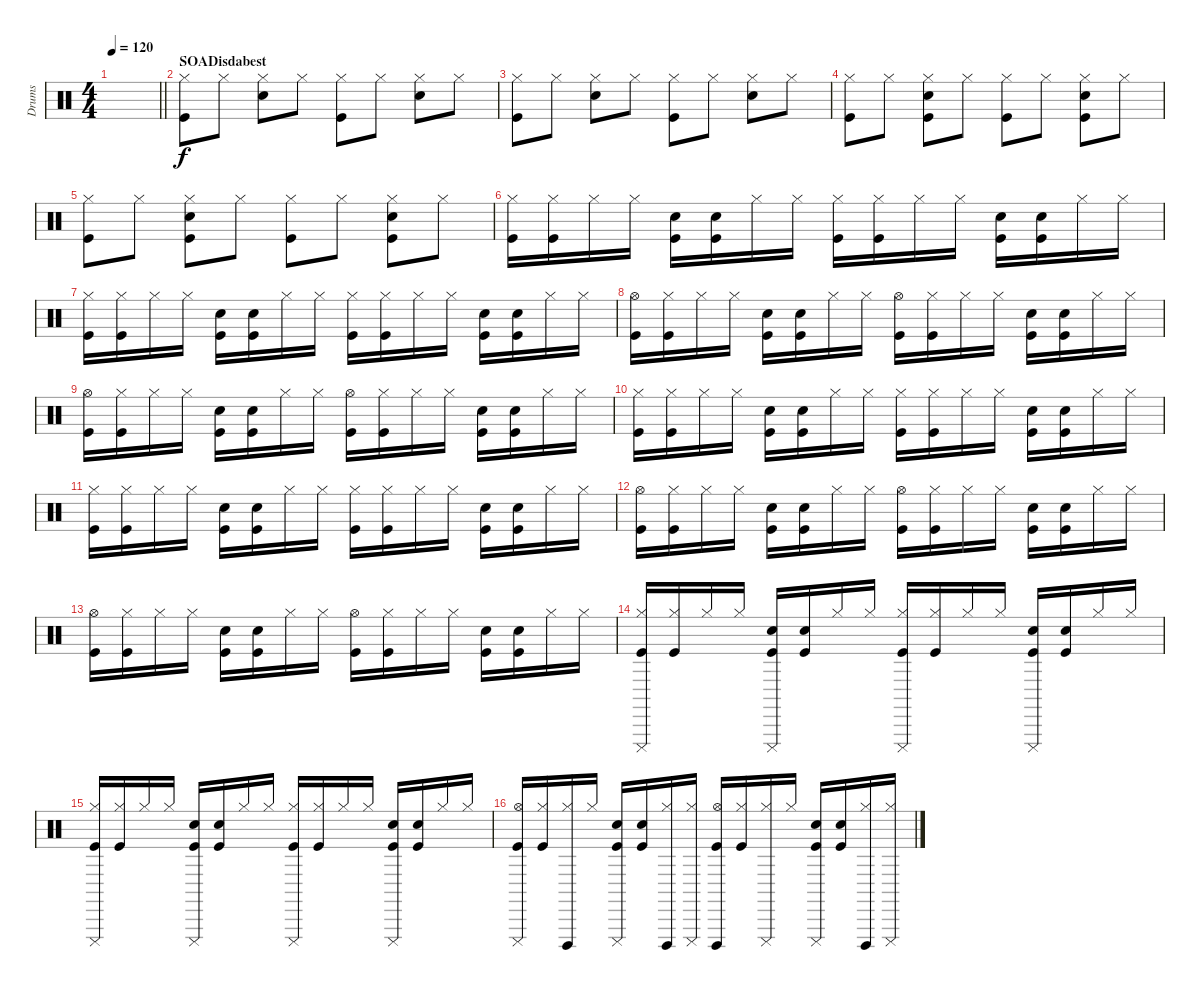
\track ("Drums" "Drums") {instrument percussion}
\staff {score}
\articulation defaults
\ts (4 4)
\tempo 120
\clef neutral
\barLineRight lightlight
\ks c
|
\section ("" "SOADisdabest")
("Hi-Hat (closed)" "Kick (hit)").8 "Hi-Hat (closed)".8 ("Hi-Hat (closed)" "Hand Clap (hit)").8 "Hi-Hat (closed)".8 ("Hi-Hat (closed)" "Kick (hit)").8 "Hi-Hat (closed)".8 ("Hi-Hat (closed)" "Hand Clap (hit)").8 "Hi-Hat (closed)".8 |
("Hi-Hat (closed)" "Kick (hit)").8 "Hi-Hat (closed)".8 ("Hi-Hat (closed)" "Hand Clap (hit)").8 "Hi-Hat (closed)".8 ("Hi-Hat (closed)" "Kick (hit)").8 "Hi-Hat (closed)".8 ("Hi-Hat (closed)" "Hand Clap (hit)").8 "Hi-Hat (closed)".8 |
("Hi-Hat (closed)" "Kick (hit)").8 "Hi-Hat (closed)".8 ("Hi-Hat (closed)" "Hand Clap (hit)" "Kick (hit)").8 "Hi-Hat (closed)".8 ("Hi-Hat (closed)" "Kick (hit)").8 "Hi-Hat (closed)".8 ("Hi-Hat (closed)" "Hand Clap (hit)" "Kick (hit)").8 "Hi-Hat (closed)".8 |
("Hi-Hat (closed)" "Kick (hit)").8 "Hi-Hat (closed)".8 ("Hi-Hat (closed)" "Hand Clap (hit)" "Kick (hit)").8 "Hi-Hat (closed)".8 ("Hi-Hat (closed)" "Kick (hit)").8 "Hi-Hat (closed)".8 ("Hi-Hat (closed)" "Hand Clap (hit)" "Kick (hit)").8 "Hi-Hat (closed)".8 |
("Hi-Hat (closed)" "Kick (hit)").16 ("Hi-Hat (closed)" "Kick (hit)").16 "Hi-Hat (closed)".16 "Hi-Hat (closed)".16 ("Hand Clap (hit)" "Kick (hit)").16 ("Hand Clap (hit)" "Kick (hit)").16 "Hi-Hat (closed)".16 "Hi-Hat (closed)".16 ("Hi-Hat (closed)" "Kick (hit)").16 ("Hi-Hat (closed)" "Kick (hit)").16 "Hi-Hat (closed)".16 "Hi-Hat (closed)".16 ("Hand Clap (hit)" "Kick (hit)").16 ("Hand Clap (hit)" "Kick (hit)").16 "Hi-Hat (closed)".16 "Hi-Hat (closed)".16 |
("Hi-Hat (closed)" "Kick (hit)").16 ("Hi-Hat (closed)" "Kick (hit)").16 "Hi-Hat (closed)".16 "Hi-Hat (closed)".16 ("Hand Clap (hit)" "Kick (hit)").16 ("Hand Clap (hit)" "Kick (hit)").16 "Hi-Hat (closed)".16 "Hi-Hat (closed)".16 ("Hi-Hat (closed)" "Kick (hit)").16 ("Hi-Hat (closed)" "Kick (hit)").16 "Hi-Hat (closed)".16 "Hi-Hat (closed)".16 ("Hand Clap (hit)" "Kick (hit)").16 ("Hand Clap (hit)" "Kick (hit)").16 "Hi-Hat (closed)".16 "Hi-Hat (closed)".16 |
("Hi-Hat (open)" "Kick (hit)").16 ("Hi-Hat (closed)" "Kick (hit)").16 "Hi-Hat (closed)".16 "Hi-Hat (closed)".16 ("Hand Clap (hit)" "Kick (hit)").16 ("Hand Clap (hit)" "Kick (hit)").16 "Hi-Hat (closed)".16 "Hi-Hat (closed)".16 ("Hi-Hat (open)" "Kick (hit)").16 ("Hi-Hat (closed)" "Kick (hit)").16 "Hi-Hat (closed)".16 "Hi-Hat (closed)".16 ("Hand Clap (hit)" "Kick (hit)").16 ("Hand Clap (hit)" "Kick (hit)").16 "Hi-Hat (closed)".16 "Hi-Hat (closed)".16 |
("Hi-Hat (open)" "Kick (hit)").16 ("Hi-Hat (closed)" "Kick (hit)").16 "Hi-Hat (closed)".16 "Hi-Hat (closed)".16 ("Hand Clap (hit)" "Kick (hit)").16 ("Hand Clap (hit)" "Kick (hit)").16 "Hi-Hat (closed)".16 "Hi-Hat (closed)".16 ("Hi-Hat (open)" "Kick (hit)").16 ("Hi-Hat (closed)" "Kick (hit)").16 "Hi-Hat (closed)".16 "Hi-Hat (closed)".16 ("Hand Clap (hit)" "Kick (hit)").16 ("Hand Clap (hit)" "Kick (hit)").16 "Hi-Hat (closed)".16 "Hi-Hat (closed)".16 |
("Hi-Hat (closed)" "Kick (hit)").16 ("Hi-Hat (closed)" "Kick (hit)").16 "Hi-Hat (closed)".16 "Hi-Hat (closed)".16 ("Hand Clap (hit)" "Kick (hit)").16 ("Hand Clap (hit)" "Kick (hit)").16 "Hi-Hat (closed)".16 "Hi-Hat (closed)".16 ("Hi-Hat (closed)" "Kick (hit)").16 ("Hi-Hat (closed)" "Kick (hit)").16 "Hi-Hat (closed)".16 "Hi-Hat (closed)".16 ("Hand Clap (hit)" "Kick (hit)").16 ("Hand Clap (hit)" "Kick (hit)").16 "Hi-Hat (closed)".16 "Hi-Hat (closed)".16 |
("Hi-Hat (closed)" "Kick (hit)").16 ("Hi-Hat (closed)" "Kick (hit)").16 "Hi-Hat (closed)".16 "Hi-Hat (closed)".16 ("Hand Clap (hit)" "Kick (hit)").16 ("Hand Clap (hit)" "Kick (hit)").16 "Hi-Hat (closed)".16 "Hi-Hat (closed)".16 ("Hi-Hat (closed)" "Kick (hit)").16 ("Hi-Hat (closed)" "Kick (hit)").16 "Hi-Hat (closed)".16 "Hi-Hat (closed)".16 ("Hand Clap (hit)" "Kick (hit)").16 ("Hand Clap (hit)" "Kick (hit)").16 "Hi-Hat (closed)".16 "Hi-Hat (closed)".16 |
("Hi-Hat (open)" "Kick (hit)").16 ("Hi-Hat (closed)" "Kick (hit)").16 "Hi-Hat (closed)".16 "Hi-Hat (closed)".16 ("Hand Clap (hit)" "Kick (hit)").16 ("Hand Clap (hit)" "Kick (hit)").16 "Hi-Hat (closed)".16 "Hi-Hat (closed)".16 ("Hi-Hat (open)" "Kick (hit)").16 ("Hi-Hat (closed)" "Kick (hit)").16 "Hi-Hat (closed)".16 "Hi-Hat (closed)".16 ("Hand Clap (hit)" "Kick (hit)").16 ("Hand Clap (hit)" "Kick (hit)").16 "Hi-Hat (closed)".16 "Hi-Hat (closed)".16 |
("Hi-Hat (open)" "Kick (hit)").16 ("Hi-Hat (closed)" "Kick (hit)").16 "Hi-Hat (closed)".16 "Hi-Hat (closed)".16 ("Hand Clap (hit)" "Kick (hit)").16 ("Hand Clap (hit)" "Kick (hit)").16 "Hi-Hat (closed)".16 "Hi-Hat (closed)".16 ("Hi-Hat (open)" "Kick (hit)").16 ("Hi-Hat (closed)" "Kick (hit)").16 "Hi-Hat (closed)".16 "Hi-Hat (closed)".16 ("Hand Clap (hit)" "Kick (hit)").16 ("Hand Clap (hit)" "Kick (hit)").16 "Hi-Hat (closed)".16 "Hi-Hat (closed)".16 |
("Cuica (mute)" "Hi-Hat (closed)" "Kick (hit)").16 ("Hi-Hat (closed)" "Kick (hit)").16 "Hi-Hat (closed)".16 "Hi-Hat (closed)".16 ("Cuica (mute)" "Hand Clap (hit)" "Kick (hit)").16 ("Hand Clap (hit)" "Kick (hit)").16 "Hi-Hat (closed)".16 "Hi-Hat (closed)".16 ("Cuica (mute)" "Hi-Hat (closed)" "Kick (hit)").16 ("Hi-Hat (closed)" "Kick (hit)").16 "Hi-Hat (closed)".16 "Hi-Hat (closed)".16 ("Cuica (mute)" "Hand Clap (hit)" "Kick (hit)").16 ("Hand Clap (hit)" "Kick (hit)").16 "Hi-Hat (closed)".16 "Hi-Hat (closed)".16 |
("Cuica (mute)" "Hi-Hat (closed)" "Kick (hit)").16 ("Hi-Hat (closed)" "Kick (hit)").16 "Hi-Hat (closed)".16 "Hi-Hat (closed)".16 ("Cuica (mute)" "Hand Clap (hit)" "Kick (hit)").16 ("Hand Clap (hit)" "Kick (hit)").16 "Hi-Hat (closed)".16 "Hi-Hat (closed)".16 ("Cuica (mute)" "Hi-Hat (closed)" "Kick (hit)").16 ("Hi-Hat (closed)" "Kick (hit)").16 "Hi-Hat (closed)".16 "Hi-Hat (closed)".16 ("Cuica (mute)" "Hand Clap (hit)" "Kick (hit)").16 ("Hand Clap (hit)" "Kick (hit)").16 "Hi-Hat (closed)".16 "Hi-Hat (closed)".16 |
("Cuica (mute)" "Hi-Hat (open)" "Kick (hit)").16 ("Hi-Hat (closed)" "Kick (hit)").16 ("Cuica (open)" "Hi-Hat (closed)").16 "Hi-Hat (closed)".16 ("Cuica (mute)" "Hand Clap (hit)" "Kick (hit)").16 ("Hand Clap (hit)" "Kick (hit)").16 ("Cuica (open)" "Hi-Hat (closed)").16 ("Cuica (mute)" "Hi-Hat (closed)").16 ("Cuica (open)" "Hi-Hat (open)" "Kick (hit)").16 ("Hi-Hat (closed)" "Kick (hit)").16 ("Cuica (mute)" "Hi-Hat (closed)").16 "Hi-Hat (closed)".16 ("Cuica (mute)" "Hand Clap (hit)" "Kick (hit)").16 ("Hand Clap (hit)" "Kick (hit)").16 ("Cuica (open)" "Hi-Hat (closed)").16 ("Cuica (mute)" "Hi-Hat (closed)").16
